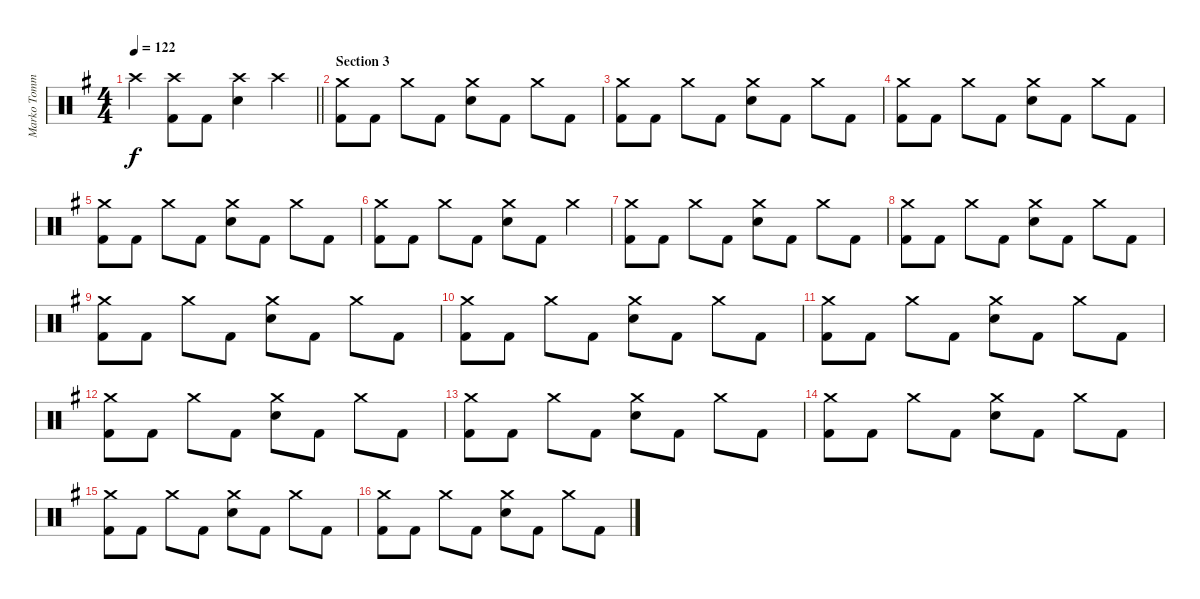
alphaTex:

\track ("Marko Tommila (drums)" "Marko Tomm") {instrument percussion}
\staff {score}
\articulation defaults
\ts (4 4)
\tempo 122
\clef neutral
\barLineRight lightlight
\ks eminor "Crash high (hit)".4{dy f}
("Crash high (hit)" "Kick (hit) 2").8 "Kick (hit) 2".8 ("Crash high (hit)" "Snare (hit) 2").4 "Crash high (hit)".4 |
\section ("" "Section 3")
("Crash medium (hit)" "Kick (hit) 2").8 "Kick (hit) 2".8 "Crash medium (hit)".8 "Kick (hit) 2".8 ("Crash medium (hit)" "Snare (hit) 2").8 "Kick (hit) 2".8 "Crash medium (hit)".8 "Kick (hit) 2".8 |
("Crash medium (hit)" "Kick (hit) 2").8 "Kick (hit) 2".8 "Crash medium (hit)".8 "Kick (hit) 2".8 ("Crash medium (hit)" "Snare (hit) 2").8 "Kick (hit) 2".8 "Crash medium (hit)".8 "Kick (hit) 2".8 |
("Crash medium (hit)" "Kick (hit) 2").8 "Kick (hit) 2".8 "Crash medium (hit)".8 "Kick (hit) 2".8 ("Crash medium (hit)" "Snare (hit) 2").8 "Kick (hit) 2".8 "Crash medium (hit)".8 "Kick (hit) 2".8 |
("Crash medium (hit)" "Kick (hit) 2").8 "Kick (hit) 2".8 "Crash medium (hit)".8 "Kick (hit) 2".8 ("Crash medium (hit)" "Snare (hit) 2").8 "Kick (hit) 2".8 "Crash medium (hit)".8 "Kick (hit) 2".8 |
("Crash medium (hit)" "Kick (hit) 2").8 "Kick (hit) 2".8 "Crash medium (hit)".8 "Kick (hit) 2".8 ("Crash medium (hit)" "Snare (hit) 2").8 "Kick (hit) 2".8 "Crash medium (hit)".4 |
("Crash medium (hit)" "Kick (hit) 2").8 "Kick (hit) 2".8 "Crash medium (hit)".8 "Kick (hit) 2".8 ("Crash medium (hit)" "Snare (hit) 2").8 "Kick (hit) 2".8 "Crash medium (hit)".8 "Kick (hit) 2".8 |
("Crash medium (hit)" "Kick (hit) 2").8 "Kick (hit) 2".8 "Crash medium (hit)".8 "Kick (hit) 2".8 ("Crash medium (hit)" "Snare (hit) 2").8 "Kick (hit) 2".8 "Crash medium (hit)".8 "Kick (hit) 2".8 |
("Crash medium (hit)" "Kick (hit) 2").8 "Kick (hit) 2".8 "Crash medium (hit)".8 "Kick (hit) 2".8 ("Crash medium (hit)" "Snare (hit) 2").8 "Kick (hit) 2".8 "Crash medium (hit)".8 "Kick (hit) 2".8 |
("Crash medium (hit)" "Kick (hit) 2").8 "Kick (hit) 2".8 "Crash medium (hit)".8 "Kick (hit) 2".8 ("Crash medium (hit)" "Snare (hit) 2").8 "Kick (hit) 2".8 "Crash medium (hit)".8 "Kick (hit) 2".8 |
("Crash medium (hit)" "Kick (hit) 2").8 "Kick (hit) 2".8 "Crash medium (hit)".8 "Kick (hit) 2".8 ("Crash medium (hit)" "Snare (hit) 2").8 "Kick (hit) 2".8 "Crash medium (hit)".8 "Kick (hit) 2".8 |
("Crash medium (hit)" "Kick (hit) 2").8 "Kick (hit) 2".8 "Crash medium (hit)".8 "Kick (hit) 2".8 ("Crash medium (hit)" "Snare (hit) 2").8 "Kick (hit) 2".8 "Crash medium (hit)".8 "Kick (hit) 2".8 |
("Crash medium (hit)" "Kick (hit) 2").8 "Kick (hit) 2".8 "Crash medium (hit)".8 "Kick (hit) 2".8 ("Crash medium (hit)" "Snare (hit) 2").8 "Kick (hit) 2".8 "Crash medium (hit)".8 "Kick (hit) 2".8 |
("Crash medium (hit)" "Kick (hit) 2").8 "Kick (hit) 2".8 "Crash medium (hit)".8 "Kick (hit) 2".8 ("Crash medium (hit)" "Snare (hit) 2").8 "Kick (hit) 2".8 "Crash medium (hit)".8 "Kick (hit) 2".8 |
("Crash medium (hit)" "Kick (hit) 2").8 "Kick (hit) 2".8 "Crash medium (hit)".8 "Kick (hit) 2".8 ("Crash medium (hit)" "Snare (hit) 2").8 "Kick (hit) 2".8 "Crash medium (hit)".8 "Kick (hit) 2".8 |
("Crash medium (hit)" "Kick (hit) 2").8 "Kick (hit) 2".8 "Crash medium (hit)".8 "Kick (hit) 2".8 ("Crash medium (hit)" "Snare (hit) 2").8 "Kick (hit) 2".8 "Crash medium (hit)".8 "Kick (hit) 2".8
